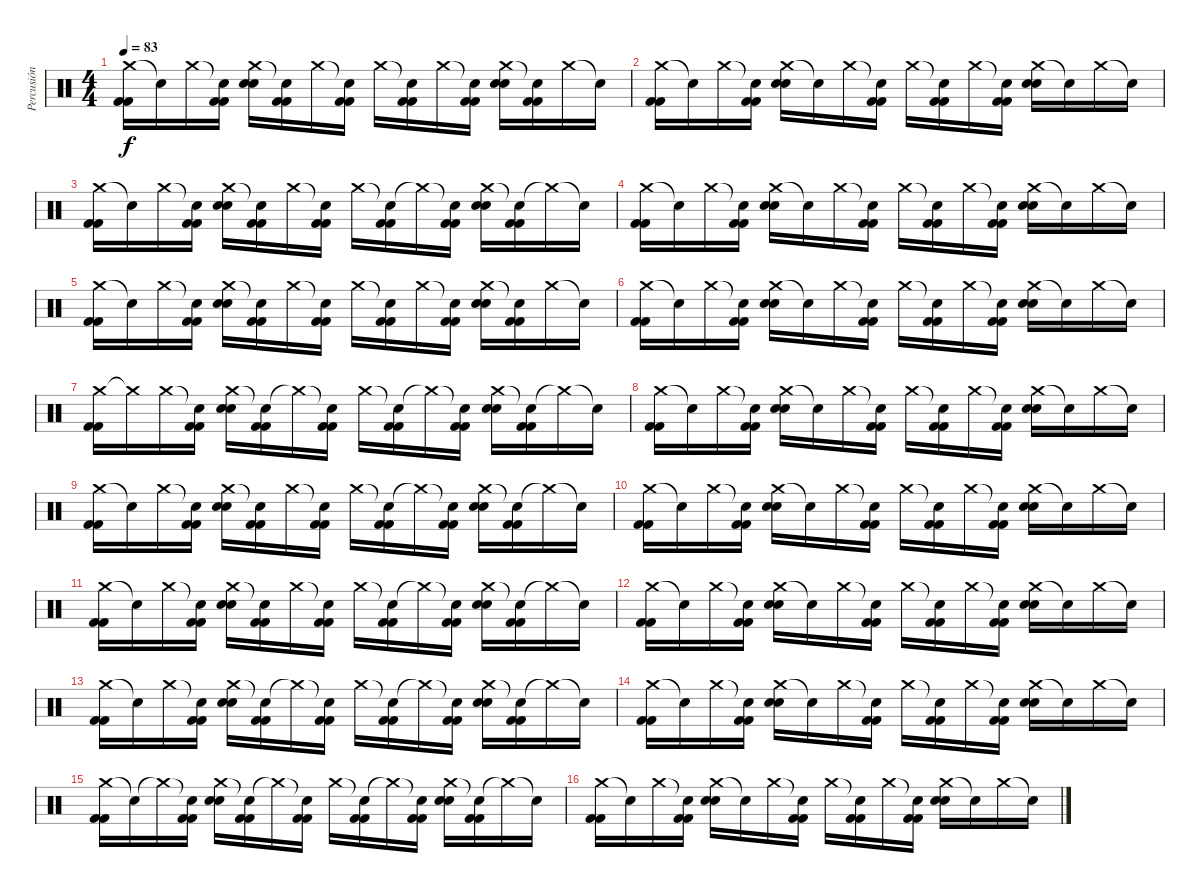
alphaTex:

\track ("Percusión" "Percusión") {instrument percussion}
\staff {score}
\articulation defaults
\ts (4 4)
\tempo 83
\clef neutral
\ks c
("Crash medium (hit)" "Kick (hit) 2" "Kick (hit) 2").16{dy f} "Snare (hit)"{t}.16 "Crash medium (hit)".16 ("Snare (hit)"{t} "Kick (hit) 2" "Kick (hit) 2").16 ("Crash medium (hit)" "Electric Snare (hit)" "Electric Snare (hit)").16 ("Snare (hit)"{t} "Kick (hit) 2" "Kick (hit) 2").16 "Crash medium (hit)".16 ("Snare (hit)"{t} "Kick (hit) 2" "Kick (hit) 2").16 "Crash medium (hit)".16 ("Snare (hit)"{t} "Kick (hit) 2" "Kick (hit) 2").16 "Crash medium (hit)".16 ("Snare (hit)"{t} "Kick (hit) 2" "Kick (hit) 2").16 ("Crash medium (hit)" "Electric Snare (hit)" "Electric Snare (hit)").16 ("Snare (hit)"{t} "Kick (hit) 2" "Kick (hit) 2").16 "Crash medium (hit)".16 "Snare (hit)"{t}.16 |
("Crash medium (hit)" "Kick (hit) 2" "Kick (hit) 2").16 "Snare (hit)"{t}.16 "Crash medium (hit)".16 ("Snare (hit)"{t} "Kick (hit) 2" "Kick (hit) 2").16 ("Crash medium (hit)" "Electric Snare (hit)" "Electric Snare (hit)").16 "Snare (hit)"{t}.16 "Crash medium (hit)".16 ("Snare (hit)"{t} "Kick (hit) 2" "Kick (hit) 2").16 "Crash medium (hit)".16 ("Snare (hit)"{t} "Kick (hit) 2" "Kick (hit) 2").16 "Crash medium (hit)".16 ("Snare (hit)"{t} "Kick (hit) 2" "Kick (hit) 2").16 ("Crash medium (hit)" "Electric Snare (hit)" "Electric Snare (hit)").16 "Snare (hit)"{t}.16 "Crash medium (hit)".16 "Snare (hit)"{t}.16 |
("Crash medium (hit)" "Kick (hit) 2" "Kick (hit) 2").16 "Snare (hit)"{t}.16 "Crash medium (hit)".16 ("Snare (hit)"{t} "Kick (hit) 2" "Kick (hit) 2").16 ("Crash medium (hit)" "Electric Snare (hit)" "Electric Snare (hit)").16 ("Snare (hit)"{t} "Kick (hit) 2" "Kick (hit) 2").16 "Crash medium (hit)".16 ("Snare (hit)"{t} "Kick (hit) 2" "Kick (hit) 2").16 "Crash medium (hit)".16 ("Snare (hit)"{t} "Kick (hit) 2" "Kick (hit) 2").16 "Crash medium (hit)"{t}.16 ("Snare (hit)"{t} "Kick (hit) 2" "Kick (hit) 2").16 ("Crash medium (hit)" "Electric Snare (hit)" "Electric Snare (hit)").16 ("Snare (hit)"{t} "Kick (hit) 2" "Kick (hit) 2").16 "Crash medium (hit)"{t}.16 "Snare (hit)"{t}.16 |
("Crash medium (hit)" "Kick (hit) 2" "Kick (hit) 2").16 "Snare (hit)"{t}.16 "Crash medium (hit)".16 ("Snare (hit)"{t} "Kick (hit) 2" "Kick (hit) 2").16 ("Crash medium (hit)" "Electric Snare (hit)" "Electric Snare (hit)").16 "Snare (hit)"{t}.16 "Crash medium (hit)".16 ("Snare (hit)"{t} "Kick (hit) 2" "Kick (hit) 2").16 "Crash medium (hit)".16 ("Snare (hit)"{t} "Kick (hit) 2" "Kick (hit) 2").16 "Crash medium (hit)".16 ("Snare (hit)"{t} "Kick (hit) 2" "Kick (hit) 2").16 ("Crash medium (hit)" "Electric Snare (hit)" "Electric Snare (hit)").16 "Snare (hit)"{t}.16 "Crash medium (hit)".16 "Snare (hit)"{t}.16 |
("Crash medium (hit)" "Kick (hit) 2" "Kick (hit) 2").16 "Snare (hit)"{t}.16 "Crash medium (hit)".16 ("Snare (hit)"{t} "Kick (hit) 2" "Kick (hit) 2").16 ("Crash medium (hit)" "Electric Snare (hit)" "Electric Snare (hit)").16 ("Snare (hit)"{t} "Kick (hit) 2" "Kick (hit) 2").16 "Crash medium (hit)".16 ("Snare (hit)"{t} "Kick (hit) 2" "Kick (hit) 2").16 "Crash medium (hit)".16 ("Snare (hit)"{t} "Kick (hit) 2" "Kick (hit) 2").16 "Crash medium (hit)".16 ("Snare (hit)"{t} "Kick (hit) 2" "Kick (hit) 2").16 ("Crash medium (hit)" "Electric Snare (hit)" "Electric Snare (hit)").16 ("Snare (hit)"{t} "Kick (hit) 2" "Kick (hit) 2").16 "Crash medium (hit)".16 "Snare (hit)"{t}.16 |
("Crash medium (hit)" "Kick (hit) 2" "Kick (hit) 2").16 "Snare (hit)"{t}.16 "Crash medium (hit)".16 ("Snare (hit)"{t} "Kick (hit) 2" "Kick (hit) 2").16 ("Crash medium (hit)" "Electric Snare (hit)" "Electric Snare (hit)").16 "Snare (hit)"{t}.16 "Crash medium (hit)".16 ("Snare (hit)"{t} "Kick (hit) 2" "Kick (hit) 2").16 "Crash medium (hit)".16 ("Snare (hit)"{t} "Kick (hit) 2" "Kick (hit) 2").16 "Crash medium (hit)".16 ("Snare (hit)"{t} "Kick (hit) 2" "Kick (hit) 2").16 ("Crash medium (hit)" "Electric Snare (hit)" "Electric Snare (hit)").16 "Snare (hit)"{t}.16 "Crash medium (hit)".16 "Snare (hit)"{t}.16 |
("Crash medium (hit)" "Kick (hit) 2" "Kick (hit) 2").16 "Crash medium (hit)"{t}.16 "Crash medium (hit)".16 ("Snare (hit)"{t} "Kick (hit) 2" "Kick (hit) 2").16 ("Crash medium (hit)" "Electric Snare (hit)" "Electric Snare (hit)").16 ("Snare (hit)"{t} "Kick (hit) 2" "Kick (hit) 2").16 "Crash medium (hit)"{t}.16 ("Snare (hit)"{t} "Kick (hit) 2" "Kick (hit) 2").16 "Crash medium (hit)".16 ("Snare (hit)"{t} "Kick (hit) 2" "Kick (hit) 2").16 "Crash medium (hit)"{t}.16 ("Snare (hit)"{t} "Kick (hit) 2" "Kick (hit) 2").16 ("Crash medium (hit)" "Electric Snare (hit)" "Electric Snare (hit)").16 ("Snare (hit)"{t} "Kick (hit) 2" "Kick (hit) 2").16 "Crash medium (hit)"{t}.16 "Snare (hit)"{t}.16 |
("Crash medium (hit)" "Kick (hit) 2" "Kick (hit) 2").16 "Snare (hit)"{t}.16 "Crash medium (hit)".16 ("Snare (hit)"{t} "Kick (hit) 2" "Kick (hit) 2").16 ("Crash medium (hit)" "Electric Snare (hit)" "Electric Snare (hit)").16 "Snare (hit)"{t}.16 "Crash medium (hit)".16 ("Snare (hit)"{t} "Kick (hit) 2" "Kick (hit) 2").16 "Crash medium (hit)".16 ("Snare (hit)"{t} "Kick (hit) 2" "Kick (hit) 2").16 "Crash medium (hit)".16 ("Snare (hit)"{t} "Kick (hit) 2" "Kick (hit) 2").16 ("Crash medium (hit)" "Electric Snare (hit)" "Electric Snare (hit)").16 "Snare (hit)"{t}.16 "Crash medium (hit)".16 "Snare (hit)"{t}.16 |
("Crash medium (hit)" "Kick (hit) 2" "Kick (hit) 2").16 "Snare (hit)"{t}.16 "Crash medium (hit)".16 ("Snare (hit)"{t} "Kick (hit) 2" "Kick (hit) 2").16 ("Crash medium (hit)" "Electric Snare (hit)" "Electric Snare (hit)").16 ("Snare (hit)"{t} "Kick (hit) 2" "Kick (hit) 2").16 "Crash medium (hit)".16 ("Snare (hit)"{t} "Kick (hit) 2" "Kick (hit) 2").16 "Crash medium (hit)".16 ("Snare (hit)"{t} "Kick (hit) 2" "Kick (hit) 2").16 "Crash medium (hit)"{t}.16 ("Snare (hit)"{t} "Kick (hit) 2" "Kick (hit) 2").16 ("Crash medium (hit)" "Electric Snare (hit)" "Electric Snare (hit)").16 ("Snare (hit)"{t} "Kick (hit) 2" "Kick (hit) 2").16 "Crash medium (hit)"{t}.16 "Snare (hit)"{t}.16 |
("Crash medium (hit)" "Kick (hit) 2" "Kick (hit) 2").16 "Snare (hit)"{t}.16 "Crash medium (hit)".16 ("Snare (hit)"{t} "Kick (hit) 2" "Kick (hit) 2").16 ("Crash medium (hit)" "Electric Snare (hit)" "Electric Snare (hit)").16 "Snare (hit)"{t}.16 "Crash medium (hit)".16 ("Snare (hit)"{t} "Kick (hit) 2" "Kick (hit) 2").16 "Crash medium (hit)".16 ("Snare (hit)"{t} "Kick (hit) 2" "Kick (hit) 2").16 "Crash medium (hit)".16 ("Snare (hit)"{t} "Kick (hit) 2" "Kick (hit) 2").16 ("Crash medium (hit)" "Electric Snare (hit)" "Electric Snare (hit)").16 "Snare (hit)"{t}.16 "Crash medium (hit)".16 "Snare (hit)"{t}.16 |
("Crash medium (hit)" "Kick (hit) 2" "Kick (hit) 2").16 "Snare (hit)"{t}.16 "Crash medium (hit)".16 ("Snare (hit)"{t} "Kick (hit) 2" "Kick (hit) 2").16 ("Crash medium (hit)" "Electric Snare (hit)" "Electric Snare (hit)").16 ("Snare (hit)"{t} "Kick (hit) 2" "Kick (hit) 2").16 "Crash medium (hit)".16 ("Snare (hit)"{t} "Kick (hit) 2" "Kick (hit) 2").16 "Crash medium (hit)".16 ("Snare (hit)"{t} "Kick (hit) 2" "Kick (hit) 2").16 "Crash medium (hit)"{t}.16 ("Snare (hit)"{t} "Kick (hit) 2" "Kick (hit) 2").16 ("Crash medium (hit)" "Electric Snare (hit)" "Electric Snare (hit)").16 ("Snare (hit)"{t} "Kick (hit) 2" "Kick (hit) 2").16 "Crash medium (hit)"{t}.16 "Snare (hit)"{t}.16 |
("Crash medium (hit)" "Kick (hit) 2" "Kick (hit) 2").16 "Snare (hit)"{t}.16 "Crash medium (hit)".16 ("Snare (hit)"{t} "Kick (hit) 2" "Kick (hit) 2").16 ("Crash medium (hit)" "Electric Snare (hit)" "Electric Snare (hit)").16 "Snare (hit)"{t}.16 "Crash medium (hit)".16 ("Snare (hit)"{t} "Kick (hit) 2" "Kick (hit) 2").16 "Crash medium (hit)".16 ("Snare (hit)"{t} "Kick (hit) 2" "Kick (hit) 2").16 "Crash medium (hit)".16 ("Snare (hit)"{t} "Kick (hit) 2" "Kick (hit) 2").16 ("Crash medium (hit)" "Electric Snare (hit)" "Electric Snare (hit)").16 "Snare (hit)"{t}.16 "Crash medium (hit)".16 "Snare (hit)"{t}.16 |
("Crash medium (hit)" "Kick (hit) 2" "Kick (hit) 2").16 "Snare (hit)"{t}.16 "Crash medium (hit)".16 ("Snare (hit)"{t} "Kick (hit) 2" "Kick (hit) 2").16 ("Crash medium (hit)" "Electric Snare (hit)" "Electric Snare (hit)").16 ("Snare (hit)"{t} "Kick (hit) 2" "Kick (hit) 2").16 "Crash medium (hit)"{t}.16 ("Snare (hit)"{t} "Kick (hit) 2" "Kick (hit) 2").16 "Crash medium (hit)".16 ("Snare (hit)"{t} "Kick (hit) 2" "Kick (hit) 2").16 "Crash medium (hit)"{t}.16 ("Snare (hit)"{t} "Kick (hit) 2" "Kick (hit) 2").16 ("Crash medium (hit)" "Electric Snare (hit)" "Electric Snare (hit)").16 ("Snare (hit)"{t} "Kick (hit) 2" "Kick (hit) 2").16 "Crash medium (hit)"{t}.16 "Snare (hit)"{t}.16 |
("Crash medium (hit)" "Kick (hit) 2" "Kick (hit) 2").16 "Snare (hit)"{t}.16 "Crash medium (hit)".16 ("Snare (hit)"{t} "Kick (hit) 2" "Kick (hit) 2").16 ("Crash medium (hit)" "Electric Snare (hit)" "Electric Snare (hit)").16 "Snare (hit)"{t}.16 "Crash medium (hit)".16 ("Snare (hit)"{t} "Kick (hit) 2" "Kick (hit) 2").16 "Crash medium (hit)".16 ("Snare (hit)"{t} "Kick (hit) 2" "Kick (hit) 2").16 "Crash medium (hit)".16 ("Snare (hit)"{t} "Kick (hit) 2" "Kick (hit) 2").16 ("Crash medium (hit)" "Electric Snare (hit)" "Electric Snare (hit)").16 "Snare (hit)"{t}.16 "Crash medium (hit)".16 "Snare (hit)"{t}.16 |
("Crash medium (hit)" "Kick (hit) 2" "Kick (hit) 2").16 "Snare (hit)"{t}.16 "Crash medium (hit)"{t}.16 ("Snare (hit)"{t} "Kick (hit) 2" "Kick (hit) 2").16 ("Crash medium (hit)" "Electric Snare (hit)" "Electric Snare (hit)").16 ("Snare (hit)"{t} "Kick (hit) 2" "Kick (hit) 2").16 "Crash medium (hit)"{t}.16 ("Snare (hit)"{t} "Kick (hit) 2" "Kick (hit) 2").16 "Crash medium (hit)".16 ("Snare (hit)"{t} "Kick (hit) 2" "Kick (hit) 2").16 "Crash medium (hit)"{t}.16 ("Snare (hit)"{t} "Kick (hit) 2" "Kick (hit) 2").16 ("Crash medium (hit)" "Electric Snare (hit)" "Electric Snare (hit)").16 ("Snare (hit)"{t} "Kick (hit) 2" "Kick (hit) 2").16 "Crash medium (hit)"{t}.16 "Snare (hit)"{t}.16 |
("Crash medium (hit)" "Kick (hit) 2" "Kick (hit) 2").16 "Snare (hit)"{t}.16 "Crash medium (hit)".16 ("Snare (hit)"{t} "Kick (hit) 2" "Kick (hit) 2").16 ("Crash medium (hit)" "Electric Snare (hit)" "Electric Snare (hit)").16 "Snare (hit)"{t}.16 "Crash medium (hit)".16 ("Snare (hit)"{t} "Kick (hit) 2" "Kick (hit) 2").16 "Crash medium (hit)".16 ("Snare (hit)"{t} "Kick (hit) 2" "Kick (hit) 2").16 "Crash medium (hit)".16 ("Snare (hit)"{t} "Kick (hit) 2" "Kick (hit) 2").16 ("Crash medium (hit)" "Electric Snare (hit)" "Electric Snare (hit)").16 "Snare (hit)"{t}.16 "Crash medium (hit)".16 "Snare (hit)"{t}.16
